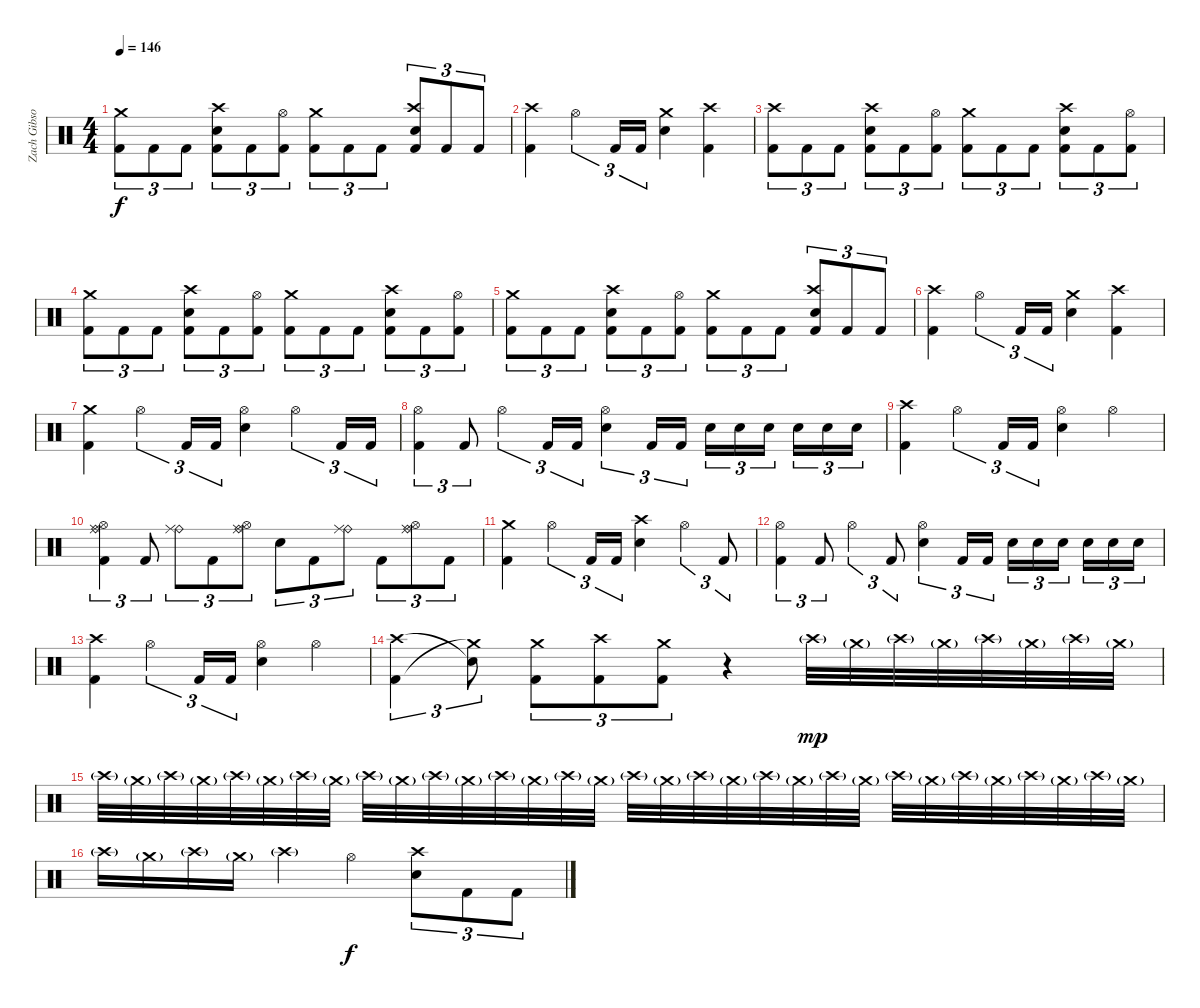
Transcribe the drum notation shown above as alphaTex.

\track ("Zach Gibson (Drums)" "Zach Gibso") {instrument percussion}
\staff {score}
\articulation defaults
\ts (4 4)
\tempo 146
\clef neutral
\ks c
("Crash medium (hit)" "Kick (hit) 2").8{tu (3 2) dy f} "Kick (hit) 2".8{tu (3 2)} "Kick (hit) 2".8{tu (3 2)} ("Crash high (hit)" "Snare (hit) 2" "Kick (hit) 2").8{tu (3 2)} "Kick (hit) 2".8{tu (3 2)} ("Hi-Hat (open)" "Kick (hit) 2").8{tu (3 2)} ("Crash medium (hit)" "Kick (hit) 2").8{tu (3 2)} "Kick (hit) 2".8{tu (3 2)} "Kick (hit) 2".8{tu (3 2)} ("Crash high (hit)" "Snare (hit) 2" "Kick (hit) 2").8{tu (3 2)} "Kick (hit) 2".8{tu (3 2)} "Kick (hit) 2".8{tu (3 2)} |
("Crash high (hit)" "Kick (hit) 2").4 "Hi-Hat (open)".4{tu (3 2)} "Kick (hit) 2".16{tu (3 2)} "Kick (hit) 2".16{tu (3 2)} ("Crash medium (hit)" "Snare (hit) 2").4 ("Crash high (hit)" "Kick (hit) 2").4 |
("Crash high (hit)" "Kick (hit) 2").8{tu (3 2)} "Kick (hit) 2".8{tu (3 2)} "Kick (hit) 2".8{tu (3 2)} ("Crash high (hit)" "Snare (hit) 2" "Kick (hit) 2").8{tu (3 2)} "Kick (hit) 2".8{tu (3 2)} ("Hi-Hat (open)" "Kick (hit) 2").8{tu (3 2)} ("Crash medium (hit)" "Kick (hit) 2").8{tu (3 2)} "Kick (hit) 2".8{tu (3 2)} "Kick (hit) 2".8{tu (3 2)} ("Crash high (hit)" "Snare (hit) 2" "Kick (hit) 2").8{tu (3 2)} "Kick (hit) 2".8{tu (3 2)} ("Hi-Hat (open)" "Kick (hit) 2").8{tu (3 2)} |
("Crash medium (hit)" "Kick (hit) 2").8{tu (3 2)} "Kick (hit) 2".8{tu (3 2)} "Kick (hit) 2".8{tu (3 2)} ("Crash high (hit)" "Snare (hit) 2" "Kick (hit) 2").8{tu (3 2)} "Kick (hit) 2".8{tu (3 2)} ("Hi-Hat (open)" "Kick (hit) 2").8{tu (3 2)} ("Crash medium (hit)" "Kick (hit) 2").8{tu (3 2)} "Kick (hit) 2".8{tu (3 2)} "Kick (hit) 2".8{tu (3 2)} ("Crash high (hit)" "Snare (hit) 2" "Kick (hit) 2").8{tu (3 2)} "Kick (hit) 2".8{tu (3 2)} ("Hi-Hat (open)" "Kick (hit) 2").8{tu (3 2)} |
("Crash medium (hit)" "Kick (hit) 2").8{tu (3 2)} "Kick (hit) 2".8{tu (3 2)} "Kick (hit) 2".8{tu (3 2)} ("Crash high (hit)" "Snare (hit) 2" "Kick (hit) 2").8{tu (3 2)} "Kick (hit) 2".8{tu (3 2)} ("Hi-Hat (open)" "Kick (hit) 2").8{tu (3 2)} ("Crash medium (hit)" "Kick (hit) 2").8{tu (3 2)} "Kick (hit) 2".8{tu (3 2)} "Kick (hit) 2".8{tu (3 2)} ("Crash high (hit)" "Snare (hit) 2" "Kick (hit) 2").8{tu (3 2)} "Kick (hit) 2".8{tu (3 2)} "Kick (hit) 2".8{tu (3 2)} |
("Crash high (hit)" "Kick (hit) 2").4 "Hi-Hat (open)".4{tu (3 2)} "Kick (hit) 2".16{tu (3 2)} "Kick (hit) 2".16{tu (3 2)} ("Crash medium (hit)" "Snare (hit) 2").4 ("Crash high (hit)" "Kick (hit) 2").4 |
("Crash medium (hit)" "Kick (hit) 2").4 "Hi-Hat (open)".4{tu (3 2)} "Kick (hit) 2".16{tu (3 2)} "Kick (hit) 2".16{tu (3 2)} ("Hi-Hat (open)" "Snare (hit) 2").4 "Hi-Hat (open)".4{tu (3 2)} "Kick (hit) 2".16{tu (3 2)} "Kick (hit) 2".16{tu (3 2)} |
("Hi-Hat (open)" "Kick (hit) 2").4{tu (3 2)} "Kick (hit) 2".8{tu (3 2)} "Hi-Hat (open)".4{tu (3 2)} "Kick (hit) 2".16{tu (3 2)} "Kick (hit) 2".16{tu (3 2)} ("Hi-Hat (open)" "Snare (hit) 2").4{tu (3 2)} "Kick (hit) 2".16{tu (3 2)} "Kick (hit) 2".16{tu (3 2)} "Snare (hit) 2".16{tu (3 2)} "Snare (hit) 2".16{tu (3 2)} "Snare (hit) 2".16{tu (3 2)} "Snare (hit) 2".16{tu (3 2)} "Snare (hit) 2".16{tu (3 2)} "Snare (hit) 2".16{tu (3 2)} |
("Crash high (hit)" "Kick (hit) 2").4 "Hi-Hat (open)".4{tu (3 2)} "Kick (hit) 2".16{tu (3 2)} "Kick (hit) 2".16{tu (3 2)} ("Hi-Hat (open)" "Snare (hit) 2").4 "Hi-Hat (open)".4 |
("Ride (bell)" "Ride (middle)" "Hi-Hat (open)" "Kick (hit) 2").4{tu (3 2)} "Kick (hit) 2".8{tu (3 2)} ("Ride (bell)" "Ride (middle)").8{tu (3 2)} "Kick (hit) 2".8{tu (3 2)} ("Ride (bell)" "Ride (middle)" "Hi-Hat (open)").8{tu (3 2)} "Snare (hit) 2".8{tu (3 2)} "Kick (hit) 2".8{tu (3 2)} ("Ride (bell)" "Ride (middle)").8{tu (3 2)} "Kick (hit) 2".8{tu (3 2)} ("Ride (middle)" "Ride (bell)" "Hi-Hat (open)").8{tu (3 2)} "Kick (hit) 2".8{tu (3 2)} |
("Crash medium (hit)" "Kick (hit) 2").4 "Hi-Hat (open)".4{tu (3 2)} "Kick (hit) 2".16{tu (3 2)} "Kick (hit) 2".16{tu (3 2)} ("Crash high (hit)" "Snare (hit) 2").4 "Hi-Hat (open)".4{tu (3 2)} "Kick (hit) 2".8{tu (3 2)} |
("Hi-Hat (open)" "Kick (hit) 2").4{tu (3 2)} "Kick (hit) 2".8{tu (3 2)} "Hi-Hat (open)".4{tu (3 2)} "Kick (hit) 2".8{tu (3 2)} ("Hi-Hat (open)" "Snare (hit) 2").4{tu (3 2)} "Kick (hit) 2".16{tu (3 2)} "Kick (hit) 2".16{tu (3 2)} "Snare (hit) 2".16{tu (3 2)} "Snare (hit) 2".16{tu (3 2)} "Snare (hit) 2".16{tu (3 2)} "Snare (hit) 2".16{tu (3 2)} "Snare (hit) 2".16{tu (3 2)} "Snare (hit) 2".16{tu (3 2)} |
("Crash high (hit)" "Kick (hit) 2").4 "Hi-Hat (open)".4{tu (3 2)} "Kick (hit) 2".16{tu (3 2)} "Kick (hit) 2".16{tu (3 2)} ("Hi-Hat (open)" "Snare (hit) 2").4 "Hi-Hat (open)".4 |
("Crash high (hit)" "Kick (hit) 2").4{tu (3 2)} ("Snare (hit)"{t} "Crash medium (hit)"{t}).8{tu (3 2)} ("Crash medium (hit)" "Kick (hit) 2").8{tu (3 2)} ("Crash high (hit)" "Kick (hit) 2").8{tu (3 2)} ("Crash medium (hit)" "Kick (hit) 2").8{tu (3 2)} r.4 "Crash high (hit)"{g}.32{dy mp} "Crash medium (hit)"{g}.32 "Crash high (hit)"{g}.32 "Crash medium (hit)"{g}.32 "Crash high (hit)"{g}.32 "Crash medium (hit)"{g}.32 "Crash high (hit)"{g}.32 "Crash medium (hit)"{g}.32 |
"Crash high (hit)"{g}.32 "Crash medium (hit)"{g}.32 "Crash high (hit)"{g}.32 "Crash medium (hit)"{g}.32 "Crash high (hit)"{g}.32 "Crash medium (hit)"{g}.32 "Crash high (hit)"{g}.32 "Crash medium (hit)"{g}.32 "Crash high (hit)"{g}.32 "Crash medium (hit)"{g}.32 "Crash high (hit)"{g}.32 "Crash medium (hit)"{g}.32 "Crash high (hit)"{g}.32 "Crash medium (hit)"{g}.32 "Crash high (hit)"{g}.32 "Crash medium (hit)"{g}.32 "Crash high (hit)"{g}.32 "Crash medium (hit)"{g}.32 "Crash high (hit)"{g}.32 "Crash medium (hit)"{g}.32 "Crash high (hit)"{g}.32 "Crash medium (hit)"{g}.32 "Crash high (hit)"{g}.32 "Crash medium (hit)"{g}.32 "Crash high (hit)"{g}.32 "Crash medium (hit)"{g}.32 "Crash high (hit)"{g}.32 "Crash medium (hit)"{g}.32 "Crash high (hit)"{g}.32 "Crash medium (hit)"{g}.32 "Crash high (hit)"{g}.32 "Crash medium (hit)"{g}.32 |
"Crash high (hit)"{g}.16 "Crash medium (hit)"{g}.16 "Crash high (hit)"{g}.16 "Crash medium (hit)"{g}.16 "Crash high (hit)"{g}.4 "Hi-Hat (open)".4{dy f} ("Crash high (hit)" "Snare (hit) 2").8{tu (3 2)} "Kick (hit) 2".8{tu (3 2)} "Kick (hit) 2".8{tu (3 2)}
